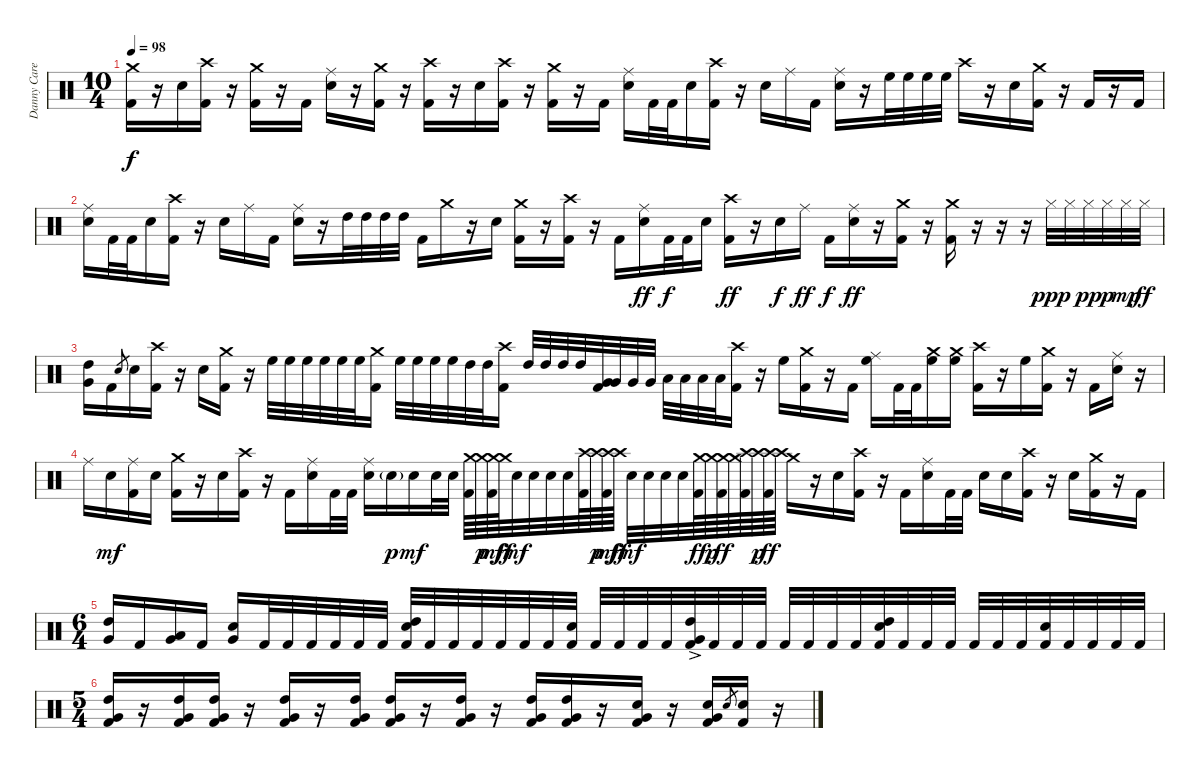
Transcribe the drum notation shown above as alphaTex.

\track ("Danny Carey" "Danny Care") {instrument percussion}
\staff {score}
\articulation defaults
\ts (10 4)
\tempo 98
\clef neutral
\ks c
("Crash medium (hit)" "Kick (hit) 2").16{dy f} r.16 "Electric Snare (hit)".16 ("Crash high (hit)" "Kick (hit) 2").16 r.16 ("Crash medium (hit)" "Kick (hit) 2").16 r.16 "Kick (hit) 2".16 ("Ride (middle)" "Electric Snare (hit)").16 r.16 ("Crash medium (hit)" "Kick (hit) 2").16 r.16 ("Crash high (hit)" "Kick (hit) 2").16 r.16 "Electric Snare (hit)".16 ("Crash high (hit)" "Kick (hit) 2").16 r.16 ("Crash medium (hit)" "Kick (hit) 2").16 r.16 "Kick (hit) 2".16 ("Ride (middle)" "Electric Snare (hit)").16 "Kick (hit) 2".32 "Kick (hit) 2".32 "Electric Snare (hit)".16 ("Crash high (hit)" "Kick (hit) 2").16 r.16 "Electric Snare (hit)".16 "Ride (middle)".16 "Kick (hit) 2".16 ("Ride (middle)" "Electric Snare (hit)").16 r.16 "High Floor Tom (hit)".32 "High Floor Tom (hit)".32 "High Floor Tom (hit)".32 "High Floor Tom (hit)".32 "Crash high (hit)".16 r.16 "Electric Snare (hit)".16 ("Crash medium (hit)" "Kick (hit) 2").16 r.16 "Kick (hit) 2".16 r.16 "Kick (hit) 2".16 |
("Ride (middle)" "Electric Snare (hit)").16 "Kick (hit) 2".32 "Kick (hit) 2".32 "Electric Snare (hit)".16 ("Crash high (hit)" "Kick (hit) 2").16 r.16 "Electric Snare (hit)".16 "Ride (middle)".16 "Kick (hit) 2".16 ("Ride (middle)" "Electric Snare (hit)").16 r.16 "High Tom (hit)".32 "High Tom (hit)".32 "High Tom (hit)".32 "High Tom (hit)".32 "Kick (hit) 2".16 "Crash medium (hit)".16 r.16 "Electric Snare (hit)".16 ("Crash medium (hit)" "Kick (hit) 2").16 r.16 ("Crash high (hit)" "Kick (hit) 2").16 r.16 "Kick (hit) 2".16 ("Ride (middle)" "Electric Snare (hit)").16{dy ff} "Kick (hit) 2".32{dy f} "Kick (hit) 2".32 "Electric Snare (hit)".16 ("Crash high (hit)" "Kick (hit) 2").16{dy ff} r.16 "Electric Snare (hit)".16{dy f} "Ride (middle)".16{dy ff} "Kick (hit) 2".16{dy f} ("Ride (middle)" "Electric Snare (hit)").16{dy ff} r.16 ("Crash medium (hit)" "Kick (hit) 2").16 r.16 ("Crash medium (hit)" "Kick (hit) 2").16 r.16 r.16 r.16 "Hi-Hat (closed)".32{dy ppp} "Hi-Hat (closed)".32 "Hi-Hat (closed)".32{dy pp} "Hi-Hat (closed)".32{dy p} "Hi-Hat (closed)".32{dy mp} "Hi-Hat (closed)".32{dy ff} |
("High Tom (hit)" "Very Low Tom (hit)").16 "Kick (hit) 2".16 "Electric Snare (hit)".8{gr} "Electric Snare (hit)".16 ("Crash high (hit)" "Kick (hit) 2").16 r.16 "Electric Snare (hit)".16 ("Crash medium (hit)" "Kick (hit) 2").16 r.16 "High Floor Tom (hit)".32 "High Floor Tom (hit)".32 "High Floor Tom (hit)".32 "High Floor Tom (hit)".32 "High Floor Tom (hit)".32 "High Floor Tom (hit)".32 ("Crash medium (hit)" "Kick (hit) 2").16 "High Floor Tom (hit)".32 "High Floor Tom (hit)".32 "High Floor Tom (hit)".32 "High Floor Tom (hit)".32 "High Tom (hit)".32 "High Tom (hit)".32 ("Crash high (hit)" "Kick (hit) 2").16 "High Tom (hit)".32 "High Tom (hit)".32 "High Tom (hit)".32 "High Tom (hit)".32 ("Very Low Tom (hit)" "Kick (hit) 2").32 "Very Low Tom (hit)".32 "Very Low Tom (hit)".32 "Very Low Tom (hit)".32 "Low Floor Tom (hit)".32 "Low Floor Tom (hit)".32 "Low Floor Tom (hit)".32 "Low Floor Tom (hit)".32 ("Crash high (hit)" "Kick (hit) 2").16 r.16 "High Floor Tom (hit)".16 ("Crash medium (hit)" "Kick (hit) 2").16 r.16 "Kick (hit) 2".16 ("Ride (middle)" "High Floor Tom (hit)").16 "Kick (hit) 2".32 "Kick (hit) 2".32 ("Crash medium (hit)" "High Floor Tom (hit)").16 ("Crash medium (hit)" "High Floor Tom (hit)").16 ("Crash high (hit)" "Kick (hit) 2").16 r.16 "High Floor Tom (hit)".16 ("Crash medium (hit)" "Kick (hit) 2").16 r.16 "Kick (hit) 2".16 ("Ride (middle)" "Electric Snare (hit)").16 r.16 |
"Ride (middle)".16 "Electric Snare (hit)".16{dy mf} ("Ride (middle)" "Kick (hit) 2").16 "Electric Snare (hit)".16 ("Crash medium (hit)" "Kick (hit) 2").16 r.16 "Electric Snare (hit)".16 ("Crash high (hit)" "Kick (hit) 2").16 r.16 "Kick (hit) 2".16 ("Ride (middle)" "Electric Snare (hit)").16 "Kick (hit) 2".32 "Kick (hit) 2".32 ("Ride (middle)" "Electric Snare (hit)").16 "Electric Snare (hit)"{g}.16{dy p} "Electric Snare (hit)".16{dy mf} "Electric Snare (hit)".32 "Electric Snare (hit)".32 ("Crash medium (hit)" "Kick (hit) 2").64 "Crash medium (hit)".64{dy p} ("Crash medium (hit)" "Kick (hit) 2").64{dy mf} "Crash medium (hit)".64{dy ff} "Electric Snare (hit)".32{dy mf} "Electric Snare (hit)".32 "Electric Snare (hit)".32 "Electric Snare (hit)".32 ("Crash high (hit)" "Kick (hit) 2").64 "Crash high (hit)".64{dy p} ("Crash high (hit)" "Kick (hit) 2").64{dy mf} "Crash high (hit)".64{dy ff} "Electric Snare (hit)".32{dy mf} "Electric Snare (hit)".32 "Electric Snare (hit)".32 "Electric Snare (hit)".32 ("Crash medium (hit)" "Kick (hit) 2").64{dy ff} "Crash medium (hit)".64{dy p} ("Crash medium (hit)" "Kick (hit) 2").64{dy ff} "Crash medium (hit)".64 ("Crash high (hit)" "Kick (hit) 2").64 "Crash high (hit)".64{dy p} ("Crash high (hit)" "Kick (hit) 2").64{dy ff} "Crash high (hit)".64 "Crash medium (hit)".16 r.16 "Electric Snare (hit)".16 ("Crash high (hit)" "Kick (hit) 2").16 r.16 "Kick (hit) 2".16 ("Ride (middle)" "Electric Snare (hit)").16 "Kick (hit) 2".32 "Kick (hit) 2".32 "Electric Snare (hit)".16 "Electric Snare (hit)".16 ("Crash high (hit)" "Kick (hit) 2").16 r.16 "Electric Snare (hit)".16 ("Crash medium (hit)" "Kick (hit) 2").16 r.16 "Kick (hit) 2".16 |
\ts (6 4)
("High Tom (hit)" "Very Low Tom (hit)").16 "Kick (hit) 2".16 ("Very Low Tom (hit)" "Low Floor Tom (hit)").16 "Kick (hit) 2".16 ("Very Low Tom (hit)" "Electric Snare (hit)").16 "Kick (hit) 2".32 "Kick (hit) 2".32 "Kick (hit) 2".32 "Kick (hit) 2".32 "Kick (hit) 2".32 "Kick (hit) 2".32 ("High Tom (hit)" "Electric Snare (hit)" "Kick (hit) 2").32 "Kick (hit) 2".32 "Kick (hit) 2".32 "Kick (hit) 2".32 "Kick (hit) 2".32 "Kick (hit) 2".32 "Kick (hit) 2".32 ("Electric Snare (hit)" "Kick (hit) 2").32 "Kick (hit) 2".32 "Kick (hit) 2".32 "Kick (hit) 2".32 "Kick (hit) 2".32 ("High Tom (hit)"{ac} "Very Low Tom (hit)" "Kick (hit) 2").32 "Kick (hit) 2".32 "Kick (hit) 2".32 "Kick (hit) 2".32 "Kick (hit) 2".32 "Kick (hit) 2".32 "Kick (hit) 2".32 "Kick (hit) 2".32 ("High Tom (hit)" "Electric Snare (hit)" "Kick (hit) 2").32 "Kick (hit) 2".32 "Kick (hit) 2".32 "Kick (hit) 2".32 "Kick (hit) 2".32 "Kick (hit) 2".32 "Kick (hit) 2".32 ("Electric Snare (hit)" "Kick (hit) 2").32 "Kick (hit) 2".32 "Kick (hit) 2".32 "Kick (hit) 2".32 "Kick (hit) 2".32 |
\ts (5 4)
("High Tom (hit)" "Very Low Tom (hit)" "Kick (hit) 2").16 r.16 ("High Tom (hit)" "Very Low Tom (hit)" "Kick (hit) 2").16 ("High Tom (hit)" "Very Low Tom (hit)" "Kick (hit) 2").16 r.16 ("High Tom (hit)" "Very Low Tom (hit)" "Kick (hit) 2").16 r.16 ("High Tom (hit)" "Very Low Tom (hit)" "Kick (hit) 2").16 ("High Tom (hit)" "Very Low Tom (hit)" "Kick (hit) 2").16 r.16 ("High Tom (hit)" "Very Low Tom (hit)" "Kick (hit) 2").16 r.16 ("High Tom (hit)" "Very Low Tom (hit)" "Kick (hit) 2").16 ("High Tom (hit)" "Very Low Tom (hit)" "Kick (hit) 2").16 r.16 ("Very Low Tom (hit)" "Electric Snare (hit)" "Kick (hit) 2").16 r.16 ("Very Low Tom (hit)" "Electric Snare (hit)" "Kick (hit) 2").16 "Electric Snare (hit)".8{gr} ("Electric Snare (hit)" "Kick (hit) 2").16 r.16
